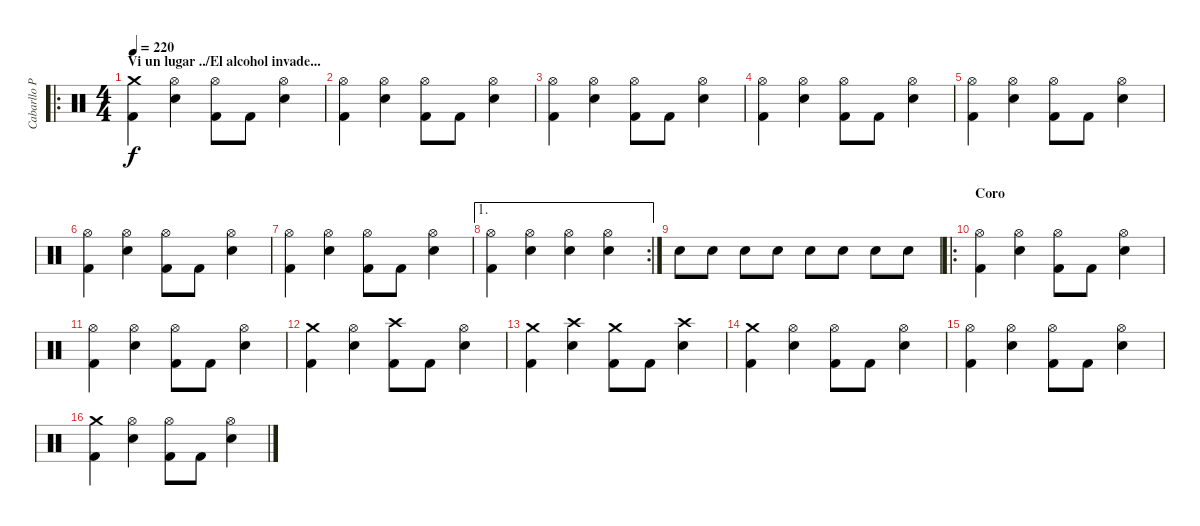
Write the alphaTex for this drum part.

\track ("Cabarllo Pepe" "Cabarllo P") {instrument percussion}
\staff {score}
\articulation defaults
\ro
\ts (4 4)
\section ("" "Vi un lugar ../El alcohol invade...")
\tempo 220
\clef neutral
\ks c
("Crash medium (hit)" "Kick (hit) 2").4{dy f} ("Hi-Hat (open)" "Electric Snare (hit)").4 ("Hi-Hat (open)" "Kick (hit) 2").8 "Kick (hit) 2".8 ("Hi-Hat (open)" "Electric Snare (hit)").4 |
("Hi-Hat (open)" "Kick (hit) 2").4 ("Hi-Hat (open)" "Electric Snare (hit)").4 ("Hi-Hat (open)" "Kick (hit) 2").8 "Kick (hit) 2".8 ("Hi-Hat (open)" "Electric Snare (hit)").4 |
("Hi-Hat (open)" "Kick (hit) 2").4 ("Hi-Hat (open)" "Electric Snare (hit)").4 ("Hi-Hat (open)" "Kick (hit) 2").8 "Kick (hit) 2".8 ("Hi-Hat (open)" "Electric Snare (hit)").4 |
("Hi-Hat (open)" "Kick (hit) 2").4 ("Hi-Hat (open)" "Electric Snare (hit)").4 ("Hi-Hat (open)" "Kick (hit) 2").8 "Kick (hit) 2".8 ("Hi-Hat (open)" "Electric Snare (hit)").4 |
("Hi-Hat (open)" "Kick (hit) 2").4 ("Hi-Hat (open)" "Electric Snare (hit)").4 ("Hi-Hat (open)" "Kick (hit) 2").8 "Kick (hit) 2".8 ("Hi-Hat (open)" "Electric Snare (hit)").4 |
("Hi-Hat (open)" "Kick (hit) 2").4 ("Hi-Hat (open)" "Electric Snare (hit)").4 ("Hi-Hat (open)" "Kick (hit) 2").8 "Kick (hit) 2".8 ("Hi-Hat (open)" "Electric Snare (hit)").4 |
("Hi-Hat (open)" "Kick (hit) 2").4 ("Hi-Hat (open)" "Electric Snare (hit)").4 ("Hi-Hat (open)" "Kick (hit) 2").8 "Kick (hit) 2".8 ("Hi-Hat (open)" "Electric Snare (hit)").4 |
\ae 1
\rc 2
("Hi-Hat (open)" "Kick (hit) 2").4 ("Hi-Hat (open)" "Electric Snare (hit)").4 ("Hi-Hat (open)" "Electric Snare (hit)").4 ("Hi-Hat (open)" "Electric Snare (hit)").4 |
"Electric Snare (hit)".8 "Electric Snare (hit)".8 "Electric Snare (hit)".8 "Electric Snare (hit)".8 "Electric Snare (hit)".8 "Electric Snare (hit)".8 "Electric Snare (hit)".8 "Electric Snare (hit)".8 |
\ro
\section ("" "Coro")
("Hi-Hat (open)" "Kick (hit) 2").4 ("Hi-Hat (open)" "Electric Snare (hit)").4 ("Hi-Hat (open)" "Kick (hit) 2").8 "Kick (hit) 2".8 ("Hi-Hat (open)" "Electric Snare (hit)").4 |
("Hi-Hat (open)" "Kick (hit) 2").4 ("Hi-Hat (open)" "Electric Snare (hit)").4 ("Hi-Hat (open)" "Kick (hit) 2").8 "Kick (hit) 2".8 ("Hi-Hat (open)" "Electric Snare (hit)").4 |
("Crash medium (hit)" "Kick (hit) 2").4 ("Hi-Hat (open)" "Electric Snare (hit)").4 ("Crash high (hit)" "Kick (hit) 2").8 "Kick (hit) 2".8 ("Hi-Hat (open)" "Electric Snare (hit)").4 |
("Crash medium (hit)" "Kick (hit) 2").4 ("Crash high (hit)" "Electric Snare (hit)").4 ("Crash medium (hit)" "Kick (hit) 2").8 "Kick (hit) 2".8 ("Crash high (hit)" "Electric Snare (hit)").4 |
("Crash medium (hit)" "Kick (hit) 2").4 ("Hi-Hat (open)" "Electric Snare (hit)").4 ("Hi-Hat (open)" "Kick (hit) 2").8 "Kick (hit) 2".8 ("Hi-Hat (open)" "Electric Snare (hit)").4 |
("Hi-Hat (open)" "Kick (hit) 2").4 ("Hi-Hat (open)" "Electric Snare (hit)").4 ("Hi-Hat (open)" "Kick (hit) 2").8 "Kick (hit) 2".8 ("Hi-Hat (open)" "Electric Snare (hit)").4 |
("Crash medium (hit)" "Kick (hit) 2").4 ("Hi-Hat (open)" "Electric Snare (hit)").4 ("Hi-Hat (open)" "Kick (hit) 2").8 "Kick (hit) 2".8 ("Hi-Hat (open)" "Electric Snare (hit)").4
